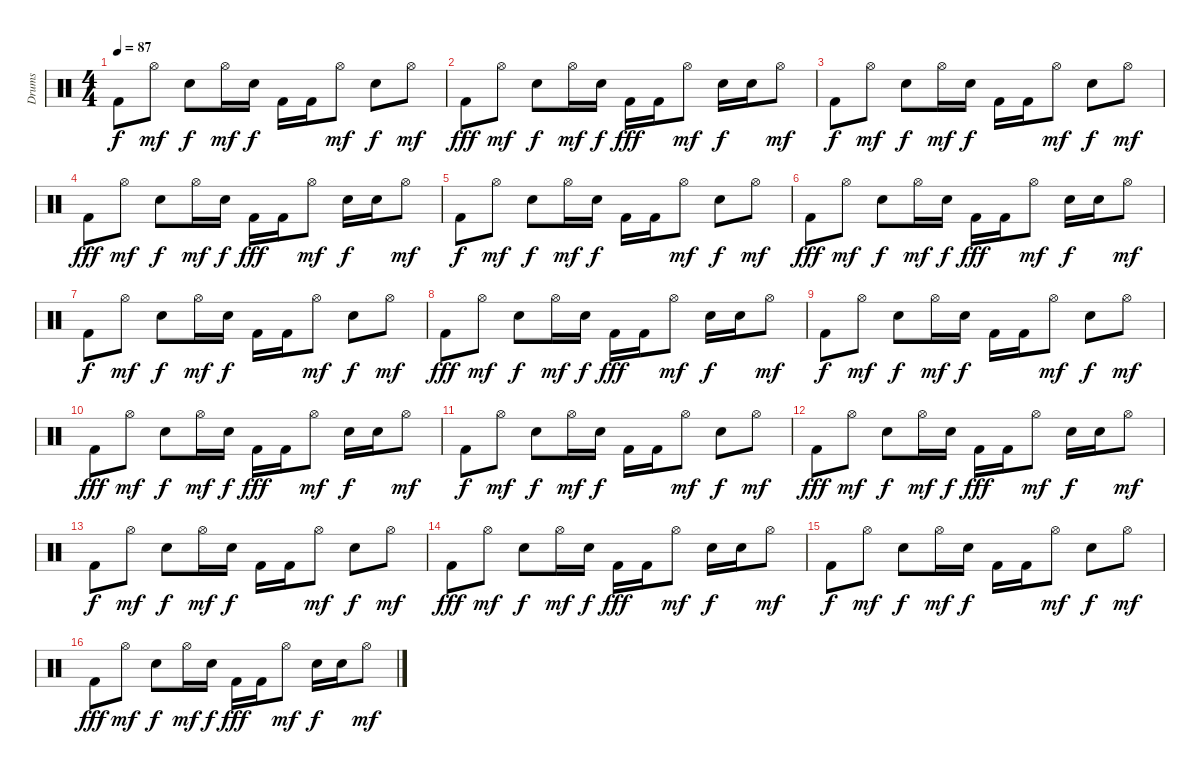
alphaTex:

\track ("Drums" "Drums") {instrument percussion}
\staff {score}
\articulation defaults
\ts (4 4)
\tempo 87
\clef neutral
\ks c "Kick (hit) 2".8{dy f} "Hi-Hat (open)".8{dy mf} "Snare (hit) 2".8{dy f} "Hi-Hat (open)".16{dy mf} "Snare (hit) 2".16{dy f} "Kick (hit) 2".16 "Kick (hit) 2".16 "Hi-Hat (open)".8{dy mf} "Snare (hit) 2".8{dy f} "Hi-Hat (open)".8{dy mf}
|
"Kick (hit) 2".8{dy fff} "Hi-Hat (open)".8{dy mf} "Snare (hit) 2".8{dy f} "Hi-Hat (open)".16{dy mf} "Snare (hit) 2".16{dy f} "Kick (hit) 2".16{dy fff} "Kick (hit) 2".16 "Hi-Hat (open)".8{dy mf} "Snare (hit) 2".16{dy f} "Snare (hit) 2".16 "Hi-Hat (open)".8{dy mf} |
"Kick (hit) 2".8{dy f} "Hi-Hat (open)".8{dy mf} "Snare (hit) 2".8{dy f} "Hi-Hat (open)".16{dy mf} "Snare (hit) 2".16{dy f} "Kick (hit) 2".16 "Kick (hit) 2".16 "Hi-Hat (open)".8{dy mf} "Snare (hit) 2".8{dy f} "Hi-Hat (open)".8{dy mf} |
"Kick (hit) 2".8{dy fff} "Hi-Hat (open)".8{dy mf} "Snare (hit) 2".8{dy f} "Hi-Hat (open)".16{dy mf} "Snare (hit) 2".16{dy f} "Kick (hit) 2".16{dy fff} "Kick (hit) 2".16 "Hi-Hat (open)".8{dy mf} "Snare (hit) 2".16{dy f} "Snare (hit) 2".16 "Hi-Hat (open)".8{dy mf} |
"Kick (hit) 2".8{dy f} "Hi-Hat (open)".8{dy mf} "Snare (hit) 2".8{dy f} "Hi-Hat (open)".16{dy mf} "Snare (hit) 2".16{dy f} "Kick (hit) 2".16 "Kick (hit) 2".16 "Hi-Hat (open)".8{dy mf} "Snare (hit) 2".8{dy f} "Hi-Hat (open)".8{dy mf} |
"Kick (hit) 2".8{dy fff} "Hi-Hat (open)".8{dy mf} "Snare (hit) 2".8{dy f} "Hi-Hat (open)".16{dy mf} "Snare (hit) 2".16{dy f} "Kick (hit) 2".16{dy fff} "Kick (hit) 2".16 "Hi-Hat (open)".8{dy mf} "Snare (hit) 2".16{dy f} "Snare (hit) 2".16 "Hi-Hat (open)".8{dy mf} |
"Kick (hit) 2".8{dy f} "Hi-Hat (open)".8{dy mf} "Snare (hit) 2".8{dy f} "Hi-Hat (open)".16{dy mf} "Snare (hit) 2".16{dy f} "Kick (hit) 2".16 "Kick (hit) 2".16 "Hi-Hat (open)".8{dy mf} "Snare (hit) 2".8{dy f} "Hi-Hat (open)".8{dy mf} |
"Kick (hit) 2".8{dy fff} "Hi-Hat (open)".8{dy mf} "Snare (hit) 2".8{dy f} "Hi-Hat (open)".16{dy mf} "Snare (hit) 2".16{dy f} "Kick (hit) 2".16{dy fff} "Kick (hit) 2".16 "Hi-Hat (open)".8{dy mf} "Snare (hit) 2".16{dy f} "Snare (hit) 2".16 "Hi-Hat (open)".8{dy mf} |
"Kick (hit) 2".8{dy f} "Hi-Hat (open)".8{dy mf} "Snare (hit) 2".8{dy f} "Hi-Hat (open)".16{dy mf} "Snare (hit) 2".16{dy f} "Kick (hit) 2".16 "Kick (hit) 2".16 "Hi-Hat (open)".8{dy mf} "Snare (hit) 2".8{dy f} "Hi-Hat (open)".8{dy mf} |
"Kick (hit) 2".8{dy fff} "Hi-Hat (open)".8{dy mf} "Snare (hit) 2".8{dy f} "Hi-Hat (open)".16{dy mf} "Snare (hit) 2".16{dy f} "Kick (hit) 2".16{dy fff} "Kick (hit) 2".16 "Hi-Hat (open)".8{dy mf} "Snare (hit) 2".16{dy f} "Snare (hit) 2".16 "Hi-Hat (open)".8{dy mf} |
"Kick (hit) 2".8{dy f} "Hi-Hat (open)".8{dy mf} "Snare (hit) 2".8{dy f} "Hi-Hat (open)".16{dy mf} "Snare (hit) 2".16{dy f} "Kick (hit) 2".16 "Kick (hit) 2".16 "Hi-Hat (open)".8{dy mf} "Snare (hit) 2".8{dy f} "Hi-Hat (open)".8{dy mf} |
"Kick (hit) 2".8{dy fff} "Hi-Hat (open)".8{dy mf} "Snare (hit) 2".8{dy f} "Hi-Hat (open)".16{dy mf} "Snare (hit) 2".16{dy f} "Kick (hit) 2".16{dy fff} "Kick (hit) 2".16 "Hi-Hat (open)".8{dy mf} "Snare (hit) 2".16{dy f} "Snare (hit) 2".16 "Hi-Hat (open)".8{dy mf} |
"Kick (hit) 2".8{dy f} "Hi-Hat (open)".8{dy mf} "Snare (hit) 2".8{dy f} "Hi-Hat (open)".16{dy mf} "Snare (hit) 2".16{dy f} "Kick (hit) 2".16 "Kick (hit) 2".16 "Hi-Hat (open)".8{dy mf} "Snare (hit) 2".8{dy f} "Hi-Hat (open)".8{dy mf} |
"Kick (hit) 2".8{dy fff} "Hi-Hat (open)".8{dy mf} "Snare (hit) 2".8{dy f} "Hi-Hat (open)".16{dy mf} "Snare (hit) 2".16{dy f} "Kick (hit) 2".16{dy fff} "Kick (hit) 2".16 "Hi-Hat (open)".8{dy mf} "Snare (hit) 2".16{dy f} "Snare (hit) 2".16 "Hi-Hat (open)".8{dy mf} |
"Kick (hit) 2".8{dy f} "Hi-Hat (open)".8{dy mf} "Snare (hit) 2".8{dy f} "Hi-Hat (open)".16{dy mf} "Snare (hit) 2".16{dy f} "Kick (hit) 2".16 "Kick (hit) 2".16 "Hi-Hat (open)".8{dy mf} "Snare (hit) 2".8{dy f} "Hi-Hat (open)".8{dy mf} |
"Kick (hit) 2".8{dy fff} "Hi-Hat (open)".8{dy mf} "Snare (hit) 2".8{dy f} "Hi-Hat (open)".16{dy mf} "Snare (hit) 2".16{dy f} "Kick (hit) 2".16{dy fff} "Kick (hit) 2".16 "Hi-Hat (open)".8{dy mf} "Snare (hit) 2".16{dy f} "Snare (hit) 2".16 "Hi-Hat (open)".8{dy mf}
